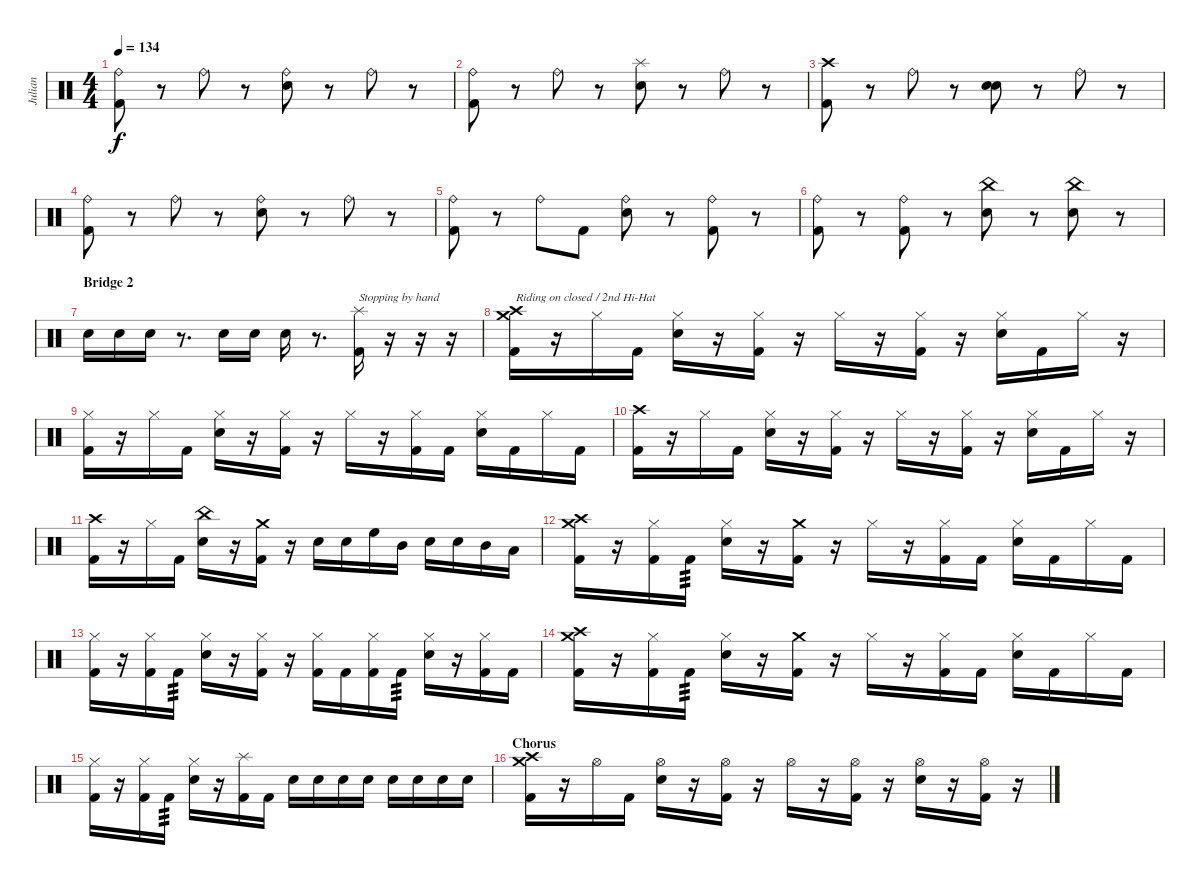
\track ("Julian" "Julian") {instrument percussion}
\staff {score}
\articulation defaults
\ts (4 4)
\tempo 134
\clef neutral
\ks c
("Ride (bell)" "Kick (hit) 2").8{dy f} r.8 "Ride (bell)".8 r.8 ("Ride (bell)" "Electric Snare (hit)").8 r.8 "Ride (bell)".8 r.8 |
("Ride (bell)" "Kick (hit) 2").8 r.8 "Ride (bell)".8 r.8 ("Splash (hit)" "Electric Snare (hit)").8 r.8 "Ride (bell)".8 r.8 |
("Crash high (hit)" "Kick (hit) 2").8 r.8 "Ride (bell)".8 r.8 ("Electric Snare (hit)" "Electric Snare (hit)").8 r.8 "Ride (bell)".8 r.8 |
("Ride (bell)" "Kick (hit) 2").8 r.8 "Ride (bell)".8 r.8 ("Ride (bell)" "Electric Snare (hit)").8 r.8 "Ride (bell)".8 r.8 |
("Ride (bell)" "Kick (hit) 2").8 r.8 "Ride (bell)".8 "Kick (hit) 2".8 ("Ride (bell)" "Electric Snare (hit)").8 r.8 ("Ride (bell)" "Kick (hit) 2").8 r.8 |
("Ride (bell)" "Kick (hit) 2").8 r.8 ("Ride (bell)" "Kick (hit) 2").8 r.8 ("China (hit)" "Electric Snare (hit)").8 r.8 ("China (hit)" "Electric Snare (hit)").8 r.8 |
\section ("" "Bridge 2")
"Electric Snare (hit)".16 "Electric Snare (hit)".16 "Electric Snare (hit)".16 r.8{d} "Electric Snare (hit)".16 "Electric Snare (hit)".16 "Electric Snare (hit)".16 r.8{d} ("Splash (hit)" "Kick (hit) 2").16{txt "Stopping by hand"} r.16{volume 0} r.16 r.16 |
("Crash medium (hit)" "Crash high (hit)" "Kick (hit) 2").16{txt "Riding on closed / 2nd Hi-Hat" volume 13} r.16 "Hi-Hat (closed)".16 "Kick (hit) 2".16 ("Hi-Hat (closed)" "Electric Snare (hit)").16 r.16 ("Hi-Hat (closed)" "Kick (hit) 2").16 r.16 "Hi-Hat (closed)".16 r.16 ("Hi-Hat (closed)" "Kick (hit) 2").16 r.16 ("Hi-Hat (closed)" "Electric Snare (hit)").16 "Kick (hit) 2".16 "Hi-Hat (closed)".16 r.16 |
("Hi-Hat (closed)" "Kick (hit) 2").16 r.16 "Hi-Hat (closed)".16 "Kick (hit) 2".16 ("Hi-Hat (closed)" "Electric Snare (hit)").16 r.16 ("Hi-Hat (closed)" "Kick (hit) 2").16 r.16 "Hi-Hat (closed)".16 r.16 ("Hi-Hat (closed)" "Kick (hit) 2").16 "Kick (hit) 2".16 ("Hi-Hat (closed)" "Electric Snare (hit)").16 "Kick (hit) 2".16 "Hi-Hat (closed)".16 "Kick (hit) 2".16 |
("Crash high (hit)" "Kick (hit) 2").16 r.16 "Hi-Hat (closed)".16 "Kick (hit) 2".16 ("Hi-Hat (closed)" "Electric Snare (hit)").16 r.16 ("Hi-Hat (closed)" "Kick (hit) 2").16 r.16 "Hi-Hat (closed)".16 r.16 ("Hi-Hat (closed)" "Kick (hit) 2").16 r.16 ("Hi-Hat (closed)" "Electric Snare (hit)").16 "Kick (hit) 2".16 "Hi-Hat (closed)".16 r.16 |
("Crash high (hit)" "Kick (hit) 2").16 r.16 "Hi-Hat (closed)".16 "Kick (hit) 2".16 ("China (hit)" "Electric Snare (hit)").16 r.16 ("Crash medium (hit)" "Kick (hit) 2").16 r.16 "Electric Snare (hit)".16 "Electric Snare (hit)".16 "High Floor Tom (hit)".16 "Mid Tom (hit)".16 "Electric Snare (hit)".16 "Electric Snare (hit)".16 "Mid Tom (hit)".16 "Low Tom (hit)".16 |
("Crash high (hit)" "Crash medium (hit)" "Kick (hit) 2").16 r.16 ("Hi-Hat (closed)" "Kick (hit) 2").16 "Kick (hit) 2".16{tp 3} ("Hi-Hat (closed)" "Electric Snare (hit)").16 r.16 ("Crash medium (hit)" "Kick (hit) 2").16 r.16 "Hi-Hat (closed)".16 r.16 ("Hi-Hat (closed)" "Kick (hit) 2").16 "Kick (hit) 2".16 ("Hi-Hat (closed)" "Electric Snare (hit)").16 "Kick (hit) 2".16 "Hi-Hat (closed)".16 "Kick (hit) 2".16 |
("Hi-Hat (closed)" "Kick (hit) 2").16 r.16 ("Hi-Hat (closed)" "Kick (hit) 2").16 "Kick (hit) 2".16{tp 3} ("Hi-Hat (closed)" "Electric Snare (hit)").16 r.16 ("Hi-Hat (closed)" "Kick (hit) 2").16 r.16 ("Hi-Hat (closed)" "Kick (hit) 2").16 "Kick (hit) 2".16 ("Hi-Hat (closed)" "Kick (hit) 2").16 "Kick (hit) 2".16{tp 3} ("Hi-Hat (closed)" "Electric Snare (hit)").16 r.16 ("Hi-Hat (closed)" "Kick (hit) 2").16 "Kick (hit) 2".16 |
("Crash high (hit)" "Crash medium (hit)" "Kick (hit) 2").16 r.16 ("Hi-Hat (closed)" "Kick (hit) 2").16 "Kick (hit) 2".16{tp 3} ("Hi-Hat (closed)" "Electric Snare (hit)").16 r.16 ("Crash medium (hit)" "Kick (hit) 2").16 r.16 "Hi-Hat (closed)".16 r.16 ("Hi-Hat (closed)" "Kick (hit) 2").16 "Kick (hit) 2".16 ("Hi-Hat (closed)" "Electric Snare (hit)").16 "Kick (hit) 2".16 "Hi-Hat (closed)".16 "Kick (hit) 2".16 |
("Hi-Hat (closed)" "Kick (hit) 2").16 r.16 ("Hi-Hat (closed)" "Kick (hit) 2").16 "Kick (hit) 2".16{tp 3} ("Hi-Hat (closed)" "Electric Snare (hit)").16 r.16 ("Splash (hit)" "Kick (hit) 2").16 "Kick (hit) 2".16 "Electric Snare (hit)".16 "Electric Snare (hit)".16 "Electric Snare (hit)".16 "Electric Snare (hit)".16 "Electric Snare (hit)".16 "Electric Snare (hit)".16 "Electric Snare (hit)".16 "Electric Snare (hit)".16 |
\section ("" "Chorus")
("Crash high (hit)" "Crash medium (hit)" "Kick (hit) 2").16 r.16 "Hi-Hat (open)".16 "Kick (hit) 2".16 ("Hi-Hat (open)" "Electric Snare (hit)").16 r.16 ("Hi-Hat (open)" "Kick (hit) 2").16 r.16 "Hi-Hat (open)".16 r.16 ("Hi-Hat (open)" "Kick (hit) 2").16 r.16 ("Hi-Hat (open)" "Electric Snare (hit)").16 r.16 ("Hi-Hat (open)" "Kick (hit) 2").16 r.16
